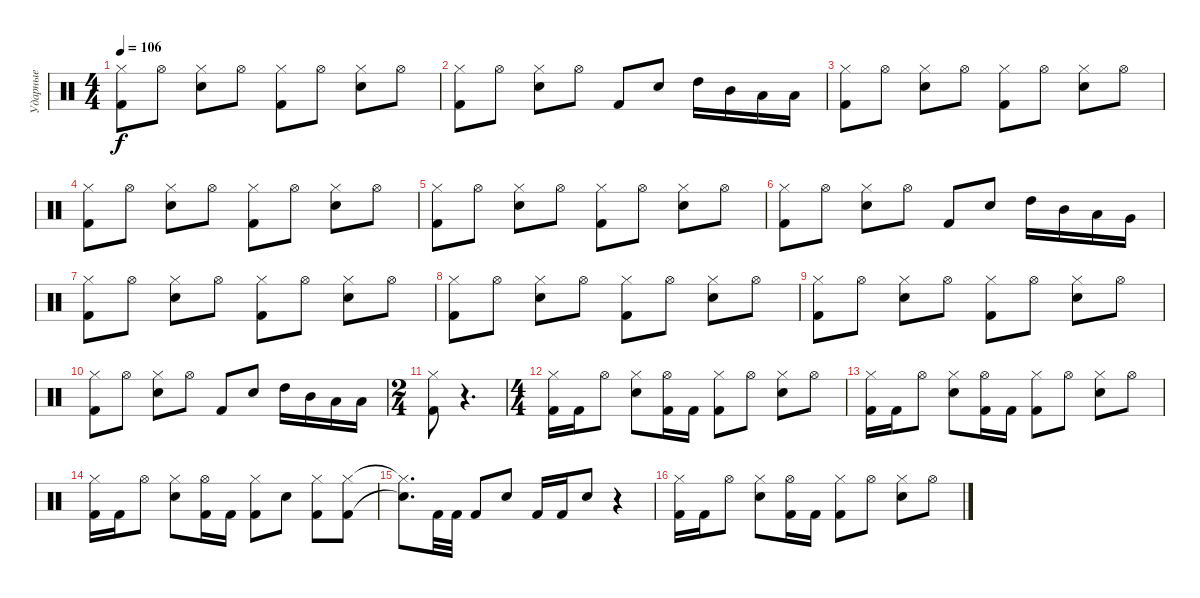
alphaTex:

\track ("Ударные" "Ударные") {instrument percussion}
\staff {score}
\articulation defaults
\ts (4 4)
\tempo 106
\clef neutral
\ks c
("Hi-Hat (closed)" "Kick (hit) 2").8{dy f} "Hi-Hat (open)".8 ("Hi-Hat (closed)" "Electric Snare (hit)").8 "Hi-Hat (open)".8 ("Hi-Hat (closed)" "Kick (hit) 2").8 "Hi-Hat (open)".8 ("Hi-Hat (closed)" "Electric Snare (hit)").8 "Hi-Hat (open)".8 |
("Hi-Hat (closed)" "Kick (hit) 2").8 "Hi-Hat (open)".8 ("Hi-Hat (closed)" "Electric Snare (hit)").8 "Hi-Hat (open)".8 "Kick (hit) 2".8 "Electric Snare (hit)".8 "High Tom (hit)".16 "Mid Tom (hit)".16 "Low Tom (hit)".16 "Low Tom (hit)".16 |
("Hi-Hat (closed)" "Kick (hit) 2").8 "Hi-Hat (open)".8 ("Hi-Hat (closed)" "Electric Snare (hit)").8 "Hi-Hat (open)".8 ("Hi-Hat (closed)" "Kick (hit) 2").8 "Hi-Hat (open)".8 ("Hi-Hat (closed)" "Electric Snare (hit)").8 "Hi-Hat (open)".8 |
("Hi-Hat (closed)" "Kick (hit) 2").8 "Hi-Hat (open)".8 ("Hi-Hat (closed)" "Electric Snare (hit)").8 "Hi-Hat (open)".8 ("Hi-Hat (closed)" "Kick (hit) 2").8 "Hi-Hat (open)".8 ("Hi-Hat (closed)" "Electric Snare (hit)").8 "Hi-Hat (open)".8 |
("Hi-Hat (closed)" "Kick (hit) 2").8 "Hi-Hat (open)".8 ("Hi-Hat (closed)" "Electric Snare (hit)").8 "Hi-Hat (open)".8 ("Hi-Hat (closed)" "Kick (hit) 2").8 "Hi-Hat (open)".8 ("Hi-Hat (closed)" "Electric Snare (hit)").8 "Hi-Hat (open)".8 |
("Hi-Hat (closed)" "Kick (hit) 2").8 "Hi-Hat (open)".8 ("Hi-Hat (closed)" "Electric Snare (hit)").8 "Hi-Hat (open)".8 "Kick (hit) 2".8 "Electric Snare (hit)".8 "High Tom (hit)".16 "Mid Tom (hit)".16 "Low Tom (hit)".16 "Very Low Tom (hit)".16 |
("Hi-Hat (closed)" "Kick (hit) 2").8 "Hi-Hat (open)".8 ("Hi-Hat (closed)" "Electric Snare (hit)").8 "Hi-Hat (open)".8 ("Hi-Hat (closed)" "Kick (hit) 2").8 "Hi-Hat (open)".8 ("Hi-Hat (closed)" "Electric Snare (hit)").8 "Hi-Hat (open)".8 |
("Hi-Hat (closed)" "Kick (hit) 2").8 "Hi-Hat (open)".8 ("Hi-Hat (closed)" "Electric Snare (hit)").8 "Hi-Hat (open)".8 ("Hi-Hat (closed)" "Kick (hit) 2").8 "Hi-Hat (open)".8 ("Hi-Hat (closed)" "Electric Snare (hit)").8 "Hi-Hat (open)".8 |
("Hi-Hat (closed)" "Kick (hit) 2").8 "Hi-Hat (open)".8 ("Hi-Hat (closed)" "Electric Snare (hit)").8 "Hi-Hat (open)".8 ("Hi-Hat (closed)" "Kick (hit) 2").8 "Hi-Hat (open)".8 ("Hi-Hat (closed)" "Electric Snare (hit)").8 "Hi-Hat (open)".8 |
("Hi-Hat (closed)" "Kick (hit) 2").8 "Hi-Hat (open)".8 ("Hi-Hat (closed)" "Electric Snare (hit)").8 "Hi-Hat (open)".8 "Kick (hit) 2".8 "Electric Snare (hit)".8 "High Tom (hit)".16 "Mid Tom (hit)".16 "Low Tom (hit)".16 "Low Tom (hit)".16 |
\ts (2 4)
("Hi-Hat (closed)" "Kick (hit) 2").8 r.4{d} |
\ts (4 4)
("Hi-Hat (closed)" "Kick (hit) 2").16 "Kick (hit) 2".16 "Hi-Hat (open)".8 ("Hi-Hat (closed)" "Electric Snare (hit)").8 ("Kick (hit) 2" "Hi-Hat (open)").16 "Kick (hit) 2".16 ("Hi-Hat (closed)" "Kick (hit) 2").8 "Hi-Hat (open)".8 ("Hi-Hat (closed)" "Electric Snare (hit)").8 "Hi-Hat (open)".8 |
("Hi-Hat (closed)" "Kick (hit) 2").16 "Kick (hit) 2".16 "Hi-Hat (open)".8 ("Hi-Hat (closed)" "Electric Snare (hit)").8 ("Kick (hit) 2" "Hi-Hat (open)").16 "Kick (hit) 2".16 ("Hi-Hat (closed)" "Kick (hit) 2").8 "Hi-Hat (open)".8 ("Hi-Hat (closed)" "Electric Snare (hit)").8 "Hi-Hat (open)".8 |
("Hi-Hat (closed)" "Kick (hit) 2").16 "Kick (hit) 2".16 "Hi-Hat (open)".8 ("Hi-Hat (closed)" "Electric Snare (hit)").8 ("Kick (hit) 2" "Hi-Hat (open)").16 "Kick (hit) 2".16 ("Hi-Hat (closed)" "Kick (hit) 2").8 "Electric Snare (hit)".8 ("Hi-Hat (closed)" "Kick (hit) 2").8 ("Hi-Hat (closed)" "Kick (hit) 2").8 |
("Hi-Hat (closed)"{t} "Electric Snare (hit)"{t}).8{d} "Kick (hit) 2".32 "Kick (hit) 2".32 "Kick (hit) 2".8 "Electric Snare (hit)".8 "Kick (hit) 2".16 "Kick (hit) 2".16 "Electric Snare (hit)".8 r.4 |
("Hi-Hat (closed)" "Kick (hit) 2").16 "Kick (hit) 2".16 "Hi-Hat (open)".8 ("Hi-Hat (closed)" "Electric Snare (hit)").8 ("Kick (hit) 2" "Hi-Hat (open)").16 "Kick (hit) 2".16 ("Hi-Hat (closed)" "Kick (hit) 2").8 "Hi-Hat (open)".8 ("Hi-Hat (closed)" "Electric Snare (hit)").8 "Hi-Hat (open)".8
